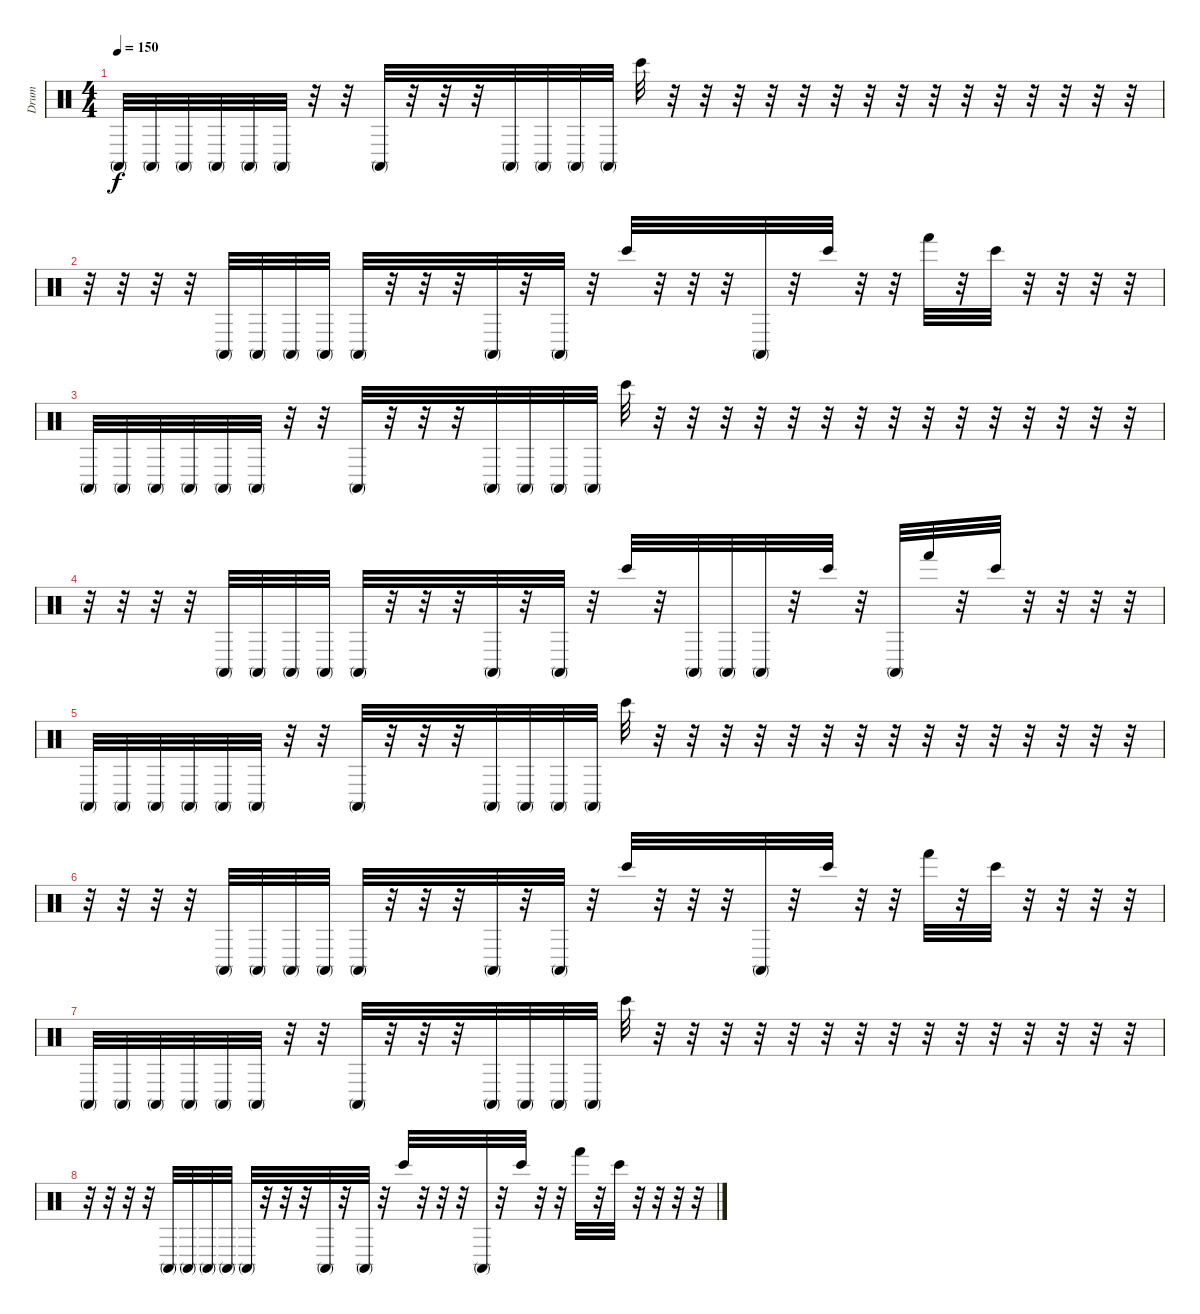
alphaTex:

\track ("Drum" "Drum") {instrument percussion}
\staff {score}
\articulation defaults
\ts (4 4)
\tempo 150
\clef neutral
\ks c "Conga high (mute)".32{dy f} "Conga high (mute)".32 "Conga high (mute)".32 "Conga high (mute)".32 "Conga high (mute)".32 "Conga high (mute)".32
r.32 r.32 "Conga high (mute)".32 r.32 r.32 r.32 "Conga high (mute)".32 "Conga high (mute)".32 "Conga high (mute)".32 "Conga high (mute)".32 "Bongo High (hit)".32 r.32 r.32 r.32 r.32 r.32 r.32 r.32 r.32 r.32 r.32 r.32 r.32 r.32 r.32 r.32 |
r.32 r.32 r.32 r.32 "Conga high (mute)".32 "Conga high (mute)".32 "Conga high (mute)".32 "Conga high (mute)".32 "Conga high (mute)".32 r.32 r.32 r.32 "Conga high (mute)".32 r.32 "Conga high (mute)".32 r.32 "Bongo High (hit)".32 r.32 r.32 r.32 "Conga high (mute)".32 r.32 "Bongo High (hit)".32 r.32 r.32 "Hand (hit)".32 r.32 "Bongo High (hit)".32 r.32 r.32 r.32 r.32 |
"Conga high (mute)".32 "Conga high (mute)".32 "Conga high (mute)".32 "Conga high (mute)".32 "Conga high (mute)".32 "Conga high (mute)".32 r.32 r.32 "Conga high (mute)".32 r.32 r.32 r.32 "Conga high (mute)".32 "Conga high (mute)".32 "Conga high (mute)".32 "Conga high (mute)".32 "Bongo High (hit)".32 r.32 r.32 r.32 r.32 r.32 r.32 r.32 r.32 r.32 r.32 r.32 r.32 r.32 r.32 r.32 |
r.32 r.32 r.32 r.32 "Conga high (mute)".32 "Conga high (mute)".32 "Conga high (mute)".32 "Conga high (mute)".32 "Conga high (mute)".32 r.32 r.32 r.32 "Conga high (mute)".32 r.32 "Conga high (mute)".32 r.32 "Bongo High (hit)".32 r.32 "Conga high (mute)".32 "Conga high (mute)".32 "Conga high (mute)".32 r.32 "Bongo High (hit)".32 r.32 "Conga high (mute)".32 "Hand (hit)".32 r.32 "Bongo High (hit)".32 r.32 r.32 r.32 r.32 |
"Conga high (mute)".32 "Conga high (mute)".32 "Conga high (mute)".32 "Conga high (mute)".32 "Conga high (mute)".32 "Conga high (mute)".32 r.32 r.32 "Conga high (mute)".32 r.32 r.32 r.32 "Conga high (mute)".32 "Conga high (mute)".32 "Conga high (mute)".32 "Conga high (mute)".32 "Bongo High (hit)".32 r.32 r.32 r.32 r.32 r.32 r.32 r.32 r.32 r.32 r.32 r.32 r.32 r.32 r.32 r.32 |
r.32 r.32 r.32 r.32 "Conga high (mute)".32 "Conga high (mute)".32 "Conga high (mute)".32 "Conga high (mute)".32 "Conga high (mute)".32 r.32 r.32 r.32 "Conga high (mute)".32 r.32 "Conga high (mute)".32 r.32 "Bongo High (hit)".32 r.32 r.32 r.32 "Conga high (mute)".32 r.32 "Bongo High (hit)".32 r.32 r.32 "Hand (hit)".32 r.32 "Bongo High (hit)".32 r.32 r.32 r.32 r.32 |
"Conga high (mute)".32 "Conga high (mute)".32 "Conga high (mute)".32 "Conga high (mute)".32 "Conga high (mute)".32 "Conga high (mute)".32 r.32 r.32 "Conga high (mute)".32 r.32 r.32 r.32 "Conga high (mute)".32 "Conga high (mute)".32 "Conga high (mute)".32 "Conga high (mute)".32 "Bongo High (hit)".32 r.32 r.32 r.32 r.32 r.32 r.32 r.32 r.32 r.32 r.32 r.32 r.32 r.32 r.32 r.32 |
r.32 r.32 r.32 r.32 "Conga high (mute)".32 "Conga high (mute)".32 "Conga high (mute)".32 "Conga high (mute)".32 "Conga high (mute)".32 r.32 r.32 r.32 "Conga high (mute)".32 r.32 "Conga high (mute)".32 r.32 "Bongo High (hit)".32 r.32 r.32 r.32 "Conga high (mute)".32 r.32 "Bongo High (hit)".32 r.32 r.32 "Hand (hit)".32 r.32 "Bongo High (hit)".32 r.32 r.32 r.32 r.32
